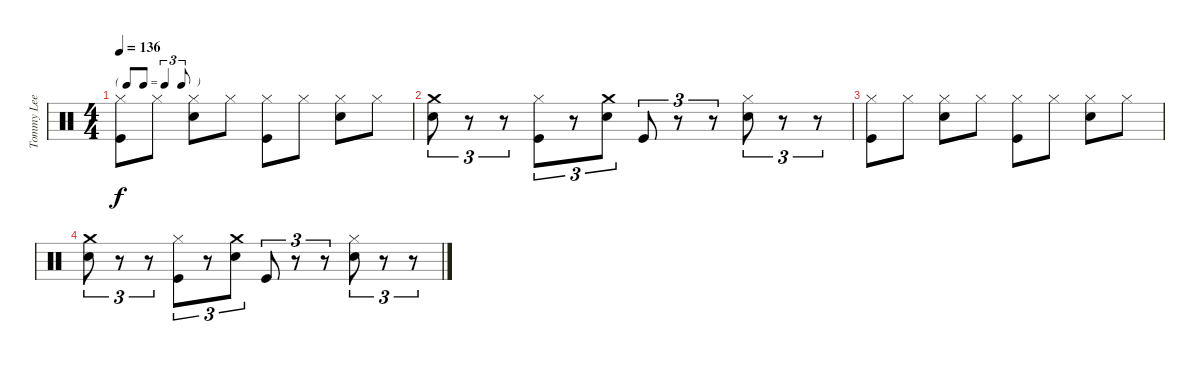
\track ("Tommy Lee" "Tommy Lee") {instrument percussion}
\staff {score}
\articulation defaults
\ts (4 4)
\tf triplet8th
\tempo 136
\clef neutral
\ks c
("Hi-Hat (closed)" "Kick (hit)").8{dy f} "Hi-Hat (closed)".8 ("Hi-Hat (closed)" "Snare (hit) 2").8 "Hi-Hat (closed)".8 ("Hi-Hat (closed)" "Kick (hit)").8 "Hi-Hat (closed)".8 ("Hi-Hat (closed)" "Snare (hit) 2").8 "Hi-Hat (closed)".8 |
("Crash medium (hit)" "Snare (hit) 2").8{tu (3 2)} r.8{tu (3 2)} r.8{tu (3 2)} ("Hi-Hat (closed)" "Kick (hit)").8{tu (3 2)} r.8{tu (3 2)} ("Crash medium (hit)" "Snare (hit) 2").8{tu (3 2)} "Kick (hit)".8{tu (3 2)} r.8{tu (3 2)} r.8{tu (3 2)} ("Hi-Hat (closed)" "Snare (hit) 2").8{tu (3 2)} r.8{tu (3 2)} r.8{tu (3 2)} |
("Hi-Hat (closed)" "Kick (hit)").8 "Hi-Hat (closed)".8 ("Hi-Hat (closed)" "Snare (hit) 2").8 "Hi-Hat (closed)".8 ("Hi-Hat (closed)" "Kick (hit)").8 "Hi-Hat (closed)".8 ("Hi-Hat (closed)" "Snare (hit) 2").8 "Hi-Hat (closed)".8 |
("Crash medium (hit)" "Snare (hit) 2").8{tu (3 2)} r.8{tu (3 2)} r.8{tu (3 2)} ("Hi-Hat (closed)" "Kick (hit)").8{tu (3 2)} r.8{tu (3 2)} ("Crash medium (hit)" "Snare (hit) 2").8{tu (3 2)} "Kick (hit)".8{tu (3 2)} r.8{tu (3 2)} r.8{tu (3 2)} ("Hi-Hat (closed)" "Snare (hit) 2").8{tu (3 2)} r.8{tu (3 2)} r.8{tu (3 2)}
